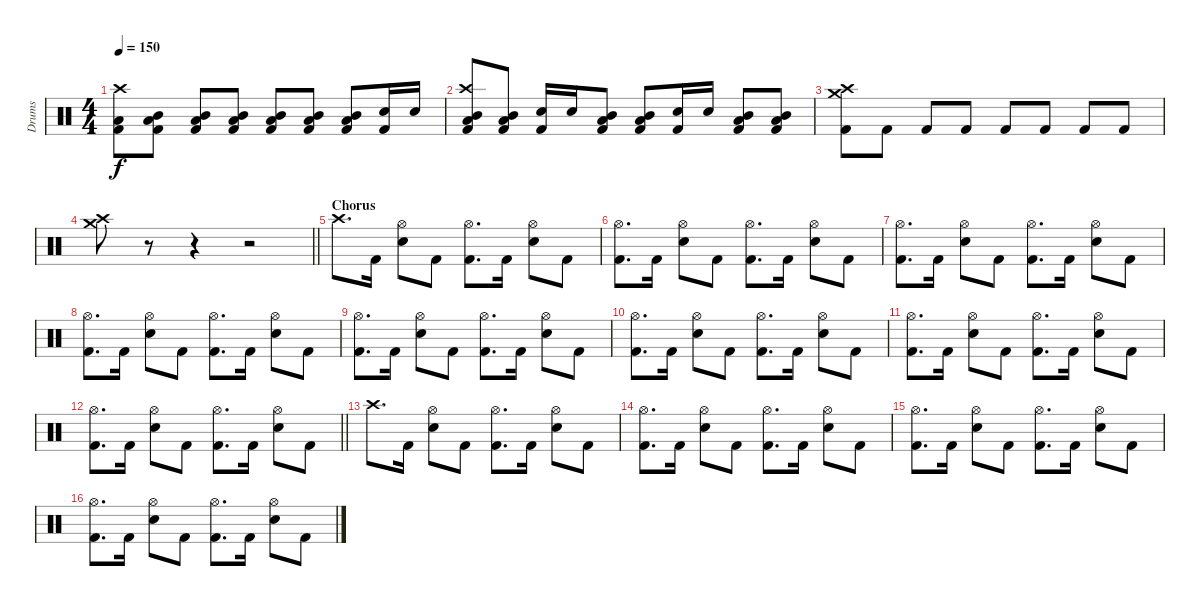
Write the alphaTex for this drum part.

\track ("Drums" "Drums") {instrument percussion}
\staff {score}
\articulation defaults
\ts (4 4)
\tempo 150
\clef neutral
\ks c
("Kick (hit) 2" "Low Tom (hit)" "Crash high (hit)").8{dy f} ("Kick (hit) 2" "Low Tom (hit)" "Mid Tom (hit)").8 ("Kick (hit) 2" "Low Tom (hit)" "Mid Tom (hit)").8 ("Kick (hit) 2" "Low Tom (hit)" "Mid Tom (hit)").8 ("Kick (hit) 2" "Low Tom (hit)" "Mid Tom (hit)").8 ("Kick (hit) 2" "Low Tom (hit)" "Mid Tom (hit)").8 ("Kick (hit) 2" "Low Tom (hit)" "Mid Tom (hit)").8 ("Kick (hit) 2" "Snare (hit) 2").16 "Snare (hit) 2".16 |
("Kick (hit) 2" "Low Tom (hit)" "Mid Tom (hit)" "Crash high (hit)").8 ("Kick (hit) 2" "Low Tom (hit)" "Mid Tom (hit)").8 ("Kick (hit) 2" "Snare (hit) 2").16 "Snare (hit) 2".16 ("Kick (hit) 2" "Low Tom (hit)" "Mid Tom (hit)").8 ("Kick (hit) 2" "Low Tom (hit)" "Mid Tom (hit)").8 ("Kick (hit) 2" "Snare (hit) 2").16 "Snare (hit) 2".16 ("Kick (hit) 2" "Low Tom (hit)" "Mid Tom (hit)").8 ("Kick (hit) 2" "Low Tom (hit)" "Mid Tom (hit)").8 |
("Kick (hit) 2" "Crash high (hit)" "Crash medium (hit)").8 "Kick (hit) 2".8 "Kick (hit) 2".8 "Kick (hit) 2".8 "Kick (hit) 2".8 "Kick (hit) 2".8 "Kick (hit) 2".8 "Kick (hit) 2".8 |
\barLineRight lightlight
("Crash medium (hit)" "Crash high (hit)").8 r.8 r.4 r.2 |
\section ("" "Chorus")
"Crash high (hit)".8{d} "Kick (hit) 2".16 ("Snare (hit) 2" "Hi-Hat (open)").8 "Kick (hit) 2".8 ("Kick (hit) 2" "Hi-Hat (open)").8{d} "Kick (hit) 2".16 ("Snare (hit) 2" "Hi-Hat (open)").8 "Kick (hit) 2".8 |
("Kick (hit) 2" "Hi-Hat (open)").8{d} "Kick (hit) 2".16 ("Snare (hit) 2" "Hi-Hat (open)").8 "Kick (hit) 2".8 ("Kick (hit) 2" "Hi-Hat (open)").8{d} "Kick (hit) 2".16 ("Snare (hit) 2" "Hi-Hat (open)").8 "Kick (hit) 2".8 |
("Kick (hit) 2" "Hi-Hat (open)").8{d} "Kick (hit) 2".16 ("Snare (hit) 2" "Hi-Hat (open)").8 "Kick (hit) 2".8 ("Kick (hit) 2" "Hi-Hat (open)").8{d} "Kick (hit) 2".16 ("Snare (hit) 2" "Hi-Hat (open)").8 "Kick (hit) 2".8 |
("Kick (hit) 2" "Hi-Hat (open)").8{d} "Kick (hit) 2".16 ("Snare (hit) 2" "Hi-Hat (open)").8 "Kick (hit) 2".8 ("Kick (hit) 2" "Hi-Hat (open)").8{d} "Kick (hit) 2".16 ("Snare (hit) 2" "Hi-Hat (open)").8 "Kick (hit) 2".8 |
("Kick (hit) 2" "Hi-Hat (open)").8{d} "Kick (hit) 2".16 ("Snare (hit) 2" "Hi-Hat (open)").8 "Kick (hit) 2".8 ("Kick (hit) 2" "Hi-Hat (open)").8{d} "Kick (hit) 2".16 ("Snare (hit) 2" "Hi-Hat (open)").8 "Kick (hit) 2".8 |
("Kick (hit) 2" "Hi-Hat (open)").8{d} "Kick (hit) 2".16 ("Snare (hit) 2" "Hi-Hat (open)").8 "Kick (hit) 2".8 ("Kick (hit) 2" "Hi-Hat (open)").8{d} "Kick (hit) 2".16 ("Snare (hit) 2" "Hi-Hat (open)").8 "Kick (hit) 2".8 |
("Kick (hit) 2" "Hi-Hat (open)").8{d} "Kick (hit) 2".16 ("Snare (hit) 2" "Hi-Hat (open)").8 "Kick (hit) 2".8 ("Kick (hit) 2" "Hi-Hat (open)").8{d} "Kick (hit) 2".16 ("Snare (hit) 2" "Hi-Hat (open)").8 "Kick (hit) 2".8 |
\barLineRight lightlight
("Kick (hit) 2" "Hi-Hat (open)").8{d} "Kick (hit) 2".16 ("Snare (hit) 2" "Hi-Hat (open)").8 "Kick (hit) 2".8 ("Kick (hit) 2" "Hi-Hat (open)").8{d} "Kick (hit) 2".16 ("Snare (hit) 2" "Hi-Hat (open)").8 "Kick (hit) 2".8 |
"Crash high (hit)".8{d} "Kick (hit) 2".16 ("Snare (hit) 2" "Hi-Hat (open)").8 "Kick (hit) 2".8 ("Kick (hit) 2" "Hi-Hat (open)").8{d} "Kick (hit) 2".16 ("Snare (hit) 2" "Hi-Hat (open)").8 "Kick (hit) 2".8 |
("Kick (hit) 2" "Hi-Hat (open)").8{d} "Kick (hit) 2".16 ("Snare (hit) 2" "Hi-Hat (open)").8 "Kick (hit) 2".8 ("Kick (hit) 2" "Hi-Hat (open)").8{d} "Kick (hit) 2".16 ("Snare (hit) 2" "Hi-Hat (open)").8 "Kick (hit) 2".8 |
("Kick (hit) 2" "Hi-Hat (open)").8{d} "Kick (hit) 2".16 ("Snare (hit) 2" "Hi-Hat (open)").8 "Kick (hit) 2".8 ("Kick (hit) 2" "Hi-Hat (open)").8{d} "Kick (hit) 2".16 ("Snare (hit) 2" "Hi-Hat (open)").8 "Kick (hit) 2".8 |
("Kick (hit) 2" "Hi-Hat (open)").8{d} "Kick (hit) 2".16 ("Snare (hit) 2" "Hi-Hat (open)").8 "Kick (hit) 2".8 ("Kick (hit) 2" "Hi-Hat (open)").8{d} "Kick (hit) 2".16 ("Snare (hit) 2" "Hi-Hat (open)").8 "Kick (hit) 2".8
